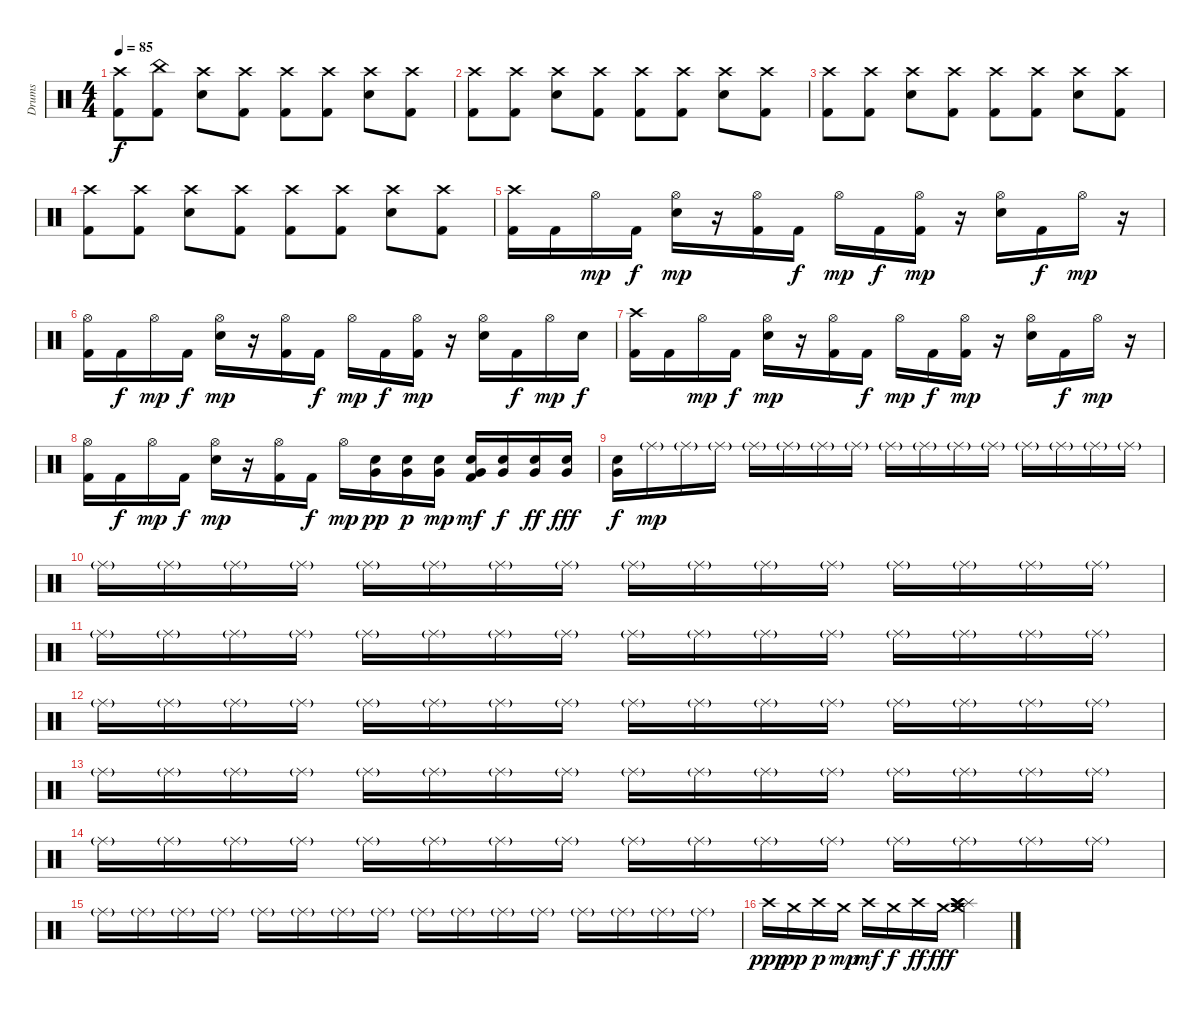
\track ("Drums" "Drums") {instrument percussion}
\staff {score}
\articulation defaults
\ts (4 4)
\tempo 85
\clef neutral
\ks c
("Crash high (hit)" "Kick (hit) 2").8{dy f} ("China (hit)" "Kick (hit) 2").8 ("Crash high (hit)" "Electric Snare (hit)").8 ("Crash high (hit)" "Kick (hit) 2").8 ("Crash high (hit)" "Kick (hit) 2").8 ("Crash high (hit)" "Kick (hit) 2").8 ("Crash high (hit)" "Electric Snare (hit)").8 ("Crash high (hit)" "Kick (hit) 2").8 |
("Crash high (hit)" "Kick (hit) 2").8 ("Crash high (hit)" "Kick (hit) 2").8 ("Crash high (hit)" "Electric Snare (hit)").8 ("Crash high (hit)" "Kick (hit) 2").8 ("Crash high (hit)" "Kick (hit) 2").8 ("Crash high (hit)" "Kick (hit) 2").8 ("Crash high (hit)" "Electric Snare (hit)").8 ("Crash high (hit)" "Kick (hit) 2").8 |
("Crash high (hit)" "Kick (hit) 2").8 ("Crash high (hit)" "Kick (hit) 2").8 ("Crash high (hit)" "Electric Snare (hit)").8 ("Crash high (hit)" "Kick (hit) 2").8 ("Crash high (hit)" "Kick (hit) 2").8 ("Crash high (hit)" "Kick (hit) 2").8 ("Crash high (hit)" "Electric Snare (hit)").8 ("Crash high (hit)" "Kick (hit) 2").8 |
("Crash high (hit)" "Kick (hit) 2").8 ("Crash high (hit)" "Kick (hit) 2").8 ("Crash high (hit)" "Electric Snare (hit)").8 ("Crash high (hit)" "Kick (hit) 2").8 ("Crash high (hit)" "Kick (hit) 2").8 ("Crash high (hit)" "Kick (hit) 2").8 ("Crash high (hit)" "Electric Snare (hit)").8 ("Crash high (hit)" "Kick (hit) 2").8 |
("Crash high (hit)" "Kick (hit) 2").16 "Kick (hit) 2".16 "Hi-Hat (open)".16{dy mp} "Kick (hit) 2".16{dy f} ("Hi-Hat (open)" "Electric Snare (hit)").16{dy mp} r.16 ("Hi-Hat (open)" "Kick (hit) 2").16 "Kick (hit) 2".16{dy f} "Hi-Hat (open)".16{dy mp} "Kick (hit) 2".16{dy f} ("Hi-Hat (open)" "Kick (hit) 2").16{dy mp} r.16 ("Hi-Hat (open)" "Electric Snare (hit)").16 "Kick (hit) 2".16{dy f} "Hi-Hat (open)".16{dy mp} r.16 |
("Hi-Hat (open)" "Kick (hit) 2").16 "Kick (hit) 2".16{dy f} "Hi-Hat (open)".16{dy mp} "Kick (hit) 2".16{dy f} ("Hi-Hat (open)" "Electric Snare (hit)").16{dy mp} r.16 ("Hi-Hat (open)" "Kick (hit) 2").16 "Kick (hit) 2".16{dy f} "Hi-Hat (open)".16{dy mp} "Kick (hit) 2".16{dy f} ("Hi-Hat (open)" "Kick (hit) 2").16{dy mp} r.16 ("Hi-Hat (open)" "Electric Snare (hit)").16 "Kick (hit) 2".16{dy f} "Hi-Hat (open)".16{dy mp} "Electric Snare (hit)".16{dy f} |
("Crash high (hit)" "Kick (hit) 2").16 "Kick (hit) 2".16 "Hi-Hat (open)".16{dy mp} "Kick (hit) 2".16{dy f} ("Hi-Hat (open)" "Electric Snare (hit)").16{dy mp} r.16 ("Hi-Hat (open)" "Kick (hit) 2").16 "Kick (hit) 2".16{dy f} "Hi-Hat (open)".16{dy mp} "Kick (hit) 2".16{dy f} ("Hi-Hat (open)" "Kick (hit) 2").16{dy mp} r.16 ("Hi-Hat (open)" "Electric Snare (hit)").16 "Kick (hit) 2".16{dy f} "Hi-Hat (open)".16{dy mp} r.16 |
("Hi-Hat (open)" "Kick (hit) 2").16 "Kick (hit) 2".16{dy f} "Hi-Hat (open)".16{dy mp} "Kick (hit) 2".16{dy f} ("Hi-Hat (open)" "Electric Snare (hit)").16{dy mp} r.16 ("Hi-Hat (open)" "Kick (hit) 2").16 "Kick (hit) 2".16{dy f} "Hi-Hat (open)".16{dy mp} ("Electric Snare (hit)" "Very Low Tom (hit)").16{dy pp} ("Electric Snare (hit)" "Very Low Tom (hit)").16{dy p} ("Electric Snare (hit)" "Very Low Tom (hit)").16{dy mp} ("Electric Snare (hit)" "Very Low Tom (hit)" "Kick (hit) 2").16{dy mf} ("Electric Snare (hit)" "Very Low Tom (hit)").16{dy f} ("Electric Snare (hit)" "Very Low Tom (hit)").16{dy ff} ("Electric Snare (hit)" "Very Low Tom (hit)").16{dy fff} |
("Electric Snare (hit)" "Very Low Tom (hit)").16{dy f} "Ride (middle)"{g}.16{dy mp} "Ride (middle)"{g}.16 "Ride (middle)"{g}.16 "Ride (middle)"{g}.16 "Ride (middle)"{g}.16 "Ride (middle)"{g}.16 "Ride (middle)"{g}.16 "Ride (middle)"{g}.16 "Ride (middle)"{g}.16 "Ride (middle)"{g}.16 "Ride (middle)"{g}.16 "Ride (middle)"{g}.16 "Ride (middle)"{g}.16 "Ride (middle)"{g}.16 "Ride (middle)"{g}.16 |
"Ride (middle)"{g}.16 "Ride (middle)"{g}.16 "Ride (middle)"{g}.16 "Ride (middle)"{g}.16 "Ride (middle)"{g}.16 "Ride (middle)"{g}.16 "Ride (middle)"{g}.16 "Ride (middle)"{g}.16 "Ride (middle)"{g}.16 "Ride (middle)"{g}.16 "Ride (middle)"{g}.16 "Ride (middle)"{g}.16 "Ride (middle)"{g}.16 "Ride (middle)"{g}.16 "Ride (middle)"{g}.16 "Ride (middle)"{g}.16 |
"Ride (middle)"{g}.16 "Ride (middle)"{g}.16 "Ride (middle)"{g}.16 "Ride (middle)"{g}.16 "Ride (middle)"{g}.16 "Ride (middle)"{g}.16 "Ride (middle)"{g}.16 "Ride (middle)"{g}.16 "Ride (middle)"{g}.16 "Ride (middle)"{g}.16 "Ride (middle)"{g}.16 "Ride (middle)"{g}.16 "Ride (middle)"{g}.16 "Ride (middle)"{g}.16 "Ride (middle)"{g}.16 "Ride (middle)"{g}.16 |
"Ride (middle)"{g}.16 "Ride (middle)"{g}.16 "Ride (middle)"{g}.16 "Ride (middle)"{g}.16 "Ride (middle)"{g}.16 "Ride (middle)"{g}.16 "Ride (middle)"{g}.16 "Ride (middle)"{g}.16 "Ride (middle)"{g}.16 "Ride (middle)"{g}.16 "Ride (middle)"{g}.16 "Ride (middle)"{g}.16 "Ride (middle)"{g}.16 "Ride (middle)"{g}.16 "Ride (middle)"{g}.16 "Ride (middle)"{g}.16 |
"Ride (middle)"{g}.16 "Ride (middle)"{g}.16 "Ride (middle)"{g}.16 "Ride (middle)"{g}.16 "Ride (middle)"{g}.16 "Ride (middle)"{g}.16 "Ride (middle)"{g}.16 "Ride (middle)"{g}.16 "Ride (middle)"{g}.16 "Ride (middle)"{g}.16 "Ride (middle)"{g}.16 "Ride (middle)"{g}.16 "Ride (middle)"{g}.16 "Ride (middle)"{g}.16 "Ride (middle)"{g}.16 "Ride (middle)"{g}.16 |
"Ride (middle)"{g}.16 "Ride (middle)"{g}.16 "Ride (middle)"{g}.16 "Ride (middle)"{g}.16 "Ride (middle)"{g}.16 "Ride (middle)"{g}.16 "Ride (middle)"{g}.16 "Ride (middle)"{g}.16 "Ride (middle)"{g}.16 "Ride (middle)"{g}.16 "Ride (middle)"{g}.16 "Ride (middle)"{g}.16 "Ride (middle)"{g}.16 "Ride (middle)"{g}.16 "Ride (middle)"{g}.16 "Ride (middle)"{g}.16 |
"Ride (middle)"{g}.16 "Ride (middle)"{g}.16 "Ride (middle)"{g}.16 "Ride (middle)"{g}.16 "Ride (middle)"{g}.16 "Ride (middle)"{g}.16 "Ride (middle)"{g}.16 "Ride (middle)"{g}.16 "Ride (middle)"{g}.16 "Ride (middle)"{g}.16 "Ride (middle)"{g}.16 "Ride (middle)"{g}.16 "Ride (middle)"{g}.16 "Ride (middle)"{g}.16 "Ride (middle)"{g}.16 "Ride (middle)"{g}.16 |
"Crash high (hit)".16{dy ppp} "Crash medium (hit)".16{dy pp} "Crash high (hit)".16{dy p} "Crash medium (hit)".16{dy mp} "Crash high (hit)".16{dy mf} "Crash medium (hit)".16{dy f} "Crash high (hit)".16{dy ff} "Crash medium (hit)".16{dy fff} ("Crash medium (hit)" "Splash (hit)" "Crash high (hit)" "Crash medium (hit)" "Splash (hit)" "Crash high (hit)").2
